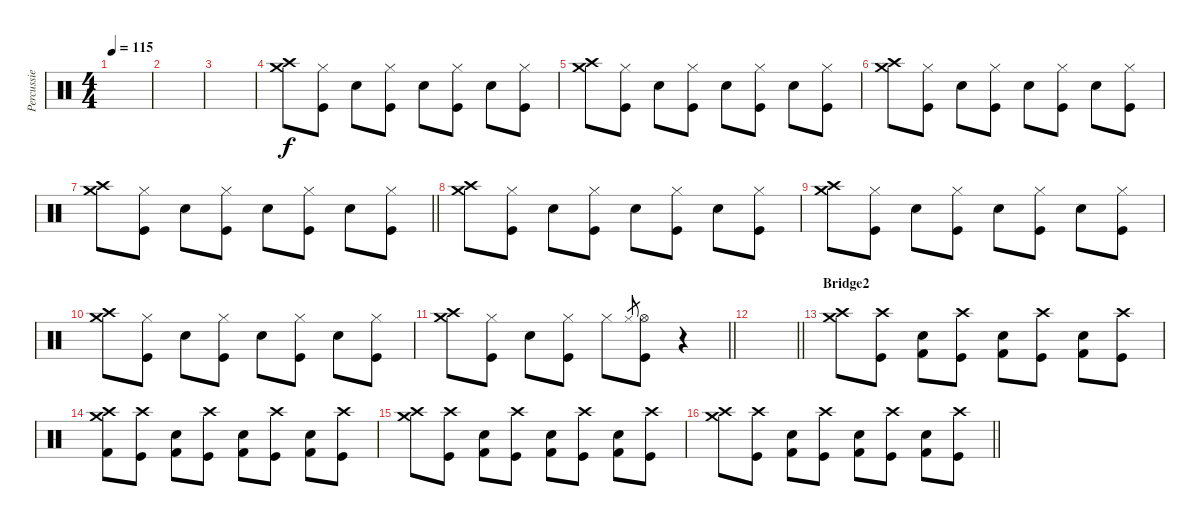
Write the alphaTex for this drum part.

\track ("Percussie" "Percussie") {instrument percussion}
\staff {score}
\articulation defaults
\ts (4 4)
\tempo 115
\clef neutral
\ks c
|
|
|
("Crash medium (hit)" "Crash high (hit)").8 ("Hi-Hat (closed)" "Kick (hit)").8 "Snare (hit) 2".8 ("Hi-Hat (closed)" "Kick (hit)").8 "Snare (hit) 2".8 ("Hi-Hat (closed)" "Kick (hit)").8 "Snare (hit) 2".8 ("Hi-Hat (closed)" "Kick (hit)").8 |
("Crash medium (hit)" "Crash high (hit)").8 ("Hi-Hat (closed)" "Kick (hit)").8 "Snare (hit) 2".8 ("Hi-Hat (closed)" "Kick (hit)").8 "Snare (hit) 2".8 ("Hi-Hat (closed)" "Kick (hit)").8 "Snare (hit) 2".8 ("Hi-Hat (closed)" "Kick (hit)").8 |
("Crash medium (hit)" "Crash high (hit)").8 ("Hi-Hat (closed)" "Kick (hit)").8 "Snare (hit) 2".8 ("Hi-Hat (closed)" "Kick (hit)").8 "Snare (hit) 2".8 ("Hi-Hat (closed)" "Kick (hit)").8 "Snare (hit) 2".8 ("Hi-Hat (closed)" "Kick (hit)").8 |
\barLineRight lightlight
("Crash medium (hit)" "Crash high (hit)").8 ("Hi-Hat (closed)" "Kick (hit)").8 "Snare (hit) 2".8 ("Hi-Hat (closed)" "Kick (hit)").8 "Snare (hit) 2".8 ("Hi-Hat (closed)" "Kick (hit)").8 "Snare (hit) 2".8 ("Hi-Hat (closed)" "Kick (hit)").8 |
("Crash medium (hit)" "Crash high (hit)").8 ("Hi-Hat (closed)" "Kick (hit)").8 "Snare (hit) 2".8 ("Hi-Hat (closed)" "Kick (hit)").8 "Snare (hit) 2".8 ("Hi-Hat (closed)" "Kick (hit)").8 "Snare (hit) 2".8 ("Hi-Hat (closed)" "Kick (hit)").8 |
("Crash medium (hit)" "Crash high (hit)").8 ("Hi-Hat (closed)" "Kick (hit)").8 "Snare (hit) 2".8 ("Hi-Hat (closed)" "Kick (hit)").8 "Snare (hit) 2".8 ("Hi-Hat (closed)" "Kick (hit)").8 "Snare (hit) 2".8 ("Hi-Hat (closed)" "Kick (hit)").8 |
("Crash medium (hit)" "Crash high (hit)").8 ("Hi-Hat (closed)" "Kick (hit)").8 "Snare (hit) 2".8 ("Hi-Hat (closed)" "Kick (hit)").8 "Snare (hit) 2".8 ("Hi-Hat (closed)" "Kick (hit)").8 "Snare (hit) 2".8 ("Hi-Hat (closed)" "Kick (hit)").8 |
\barLineRight lightlight
("Crash medium (hit)" "Crash high (hit)").8 ("Hi-Hat (closed)" "Kick (hit)").8 "Snare (hit) 2".8 ("Hi-Hat (closed)" "Kick (hit)").8 "Hi-Hat (closed)".8 "Hi-Hat (closed)"{sl}.8{gr} ("Hi-Hat (open)" "Kick (hit)").8 r.4 |
\barLineRight lightlight
|
\section ("" "Bridge2")
("Crash medium (hit)" "Crash high (hit)").8 ("Crash high (hit)" "Kick (hit)").8 ("Snare (hit) 2" "Kick (hit) 2").8 ("Crash high (hit)" "Kick (hit)").8 ("Snare (hit) 2" "Kick (hit) 2").8 ("Crash high (hit)" "Kick (hit)").8 ("Snare (hit) 2" "Kick (hit) 2").8 ("Crash high (hit)" "Kick (hit)").8 |
("Crash medium (hit)" "Crash high (hit)" "Kick (hit) 2").8 ("Crash high (hit)" "Kick (hit)").8 ("Snare (hit) 2" "Kick (hit) 2").8 ("Crash high (hit)" "Kick (hit)").8 ("Snare (hit) 2" "Kick (hit) 2").8 ("Crash high (hit)" "Kick (hit)").8 ("Snare (hit) 2" "Kick (hit) 2").8 ("Crash high (hit)" "Kick (hit)").8 |
("Crash medium (hit)" "Crash high (hit)").8 ("Crash high (hit)" "Kick (hit)").8 ("Snare (hit) 2" "Kick (hit) 2").8 ("Crash high (hit)" "Kick (hit)").8 ("Snare (hit) 2" "Kick (hit) 2").8 ("Crash high (hit)" "Kick (hit)").8 ("Snare (hit) 2" "Kick (hit) 2").8 ("Crash high (hit)" "Kick (hit)").8 |
\barLineRight lightlight
("Crash medium (hit)" "Crash high (hit)").8 ("Crash high (hit)" "Kick (hit)").8 ("Snare (hit) 2" "Kick (hit) 2").8 ("Crash high (hit)" "Kick (hit)").8 ("Snare (hit) 2" "Kick (hit) 2").8 ("Crash high (hit)" "Kick (hit)").8 ("Snare (hit) 2" "Kick (hit) 2").8 ("Crash high (hit)" "Kick (hit)").8
